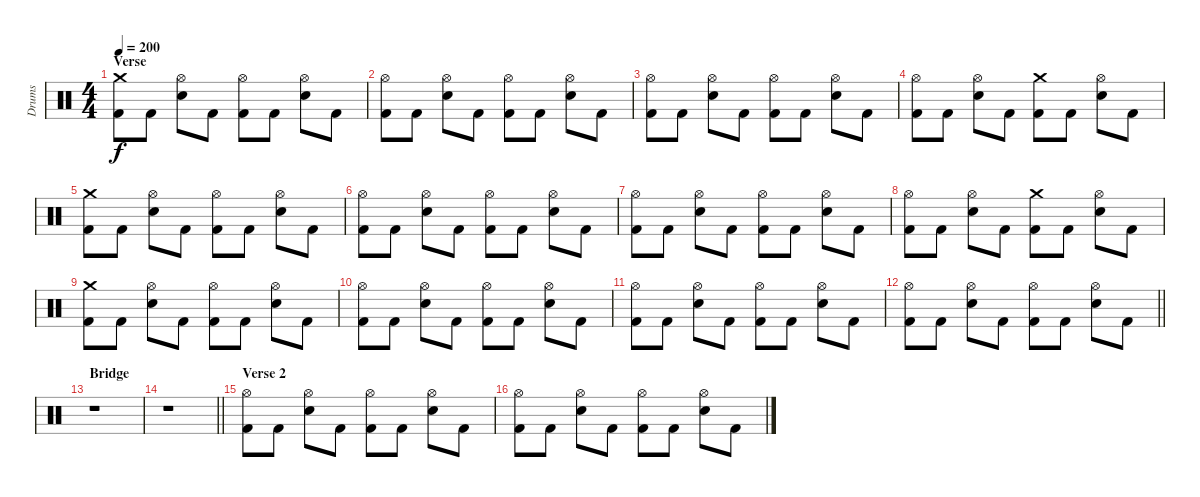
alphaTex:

\track ("Drums" "Drums") {instrument percussion}
\staff {score}
\articulation defaults
\ts (4 4)
\section ("" "Verse")
\tempo 200
\clef neutral
\ks c
("Kick (hit) 2" "Crash medium (hit)").8{dy f} "Kick (hit) 2".8 ("Snare (hit) 2" "Hi-Hat (open)").8 "Kick (hit) 2".8 ("Kick (hit) 2" "Hi-Hat (open)").8 "Kick (hit) 2".8 ("Snare (hit) 2" "Hi-Hat (open)").8 "Kick (hit) 2".8 |
("Kick (hit) 2" "Hi-Hat (open)").8 "Kick (hit) 2".8 ("Snare (hit) 2" "Hi-Hat (open)").8 "Kick (hit) 2".8 ("Kick (hit) 2" "Hi-Hat (open)").8 "Kick (hit) 2".8 ("Snare (hit) 2" "Hi-Hat (open)").8 "Kick (hit) 2".8 |
("Kick (hit) 2" "Hi-Hat (open)").8 "Kick (hit) 2".8 ("Snare (hit) 2" "Hi-Hat (open)").8 "Kick (hit) 2".8 ("Kick (hit) 2" "Hi-Hat (open)").8 "Kick (hit) 2".8 ("Snare (hit) 2" "Hi-Hat (open)").8 "Kick (hit) 2".8 |
("Kick (hit) 2" "Hi-Hat (open)").8 "Kick (hit) 2".8 ("Snare (hit) 2" "Hi-Hat (open)").8 "Kick (hit) 2".8 ("Kick (hit) 2" "Crash medium (hit)").8 "Kick (hit) 2".8 ("Snare (hit) 2" "Hi-Hat (open)").8 "Kick (hit) 2".8 |
("Kick (hit) 2" "Crash medium (hit)").8 "Kick (hit) 2".8 ("Snare (hit) 2" "Hi-Hat (open)").8 "Kick (hit) 2".8 ("Kick (hit) 2" "Hi-Hat (open)").8 "Kick (hit) 2".8 ("Snare (hit) 2" "Hi-Hat (open)").8 "Kick (hit) 2".8 |
("Kick (hit) 2" "Hi-Hat (open)").8 "Kick (hit) 2".8 ("Snare (hit) 2" "Hi-Hat (open)").8 "Kick (hit) 2".8 ("Kick (hit) 2" "Hi-Hat (open)").8 "Kick (hit) 2".8 ("Snare (hit) 2" "Hi-Hat (open)").8 "Kick (hit) 2".8 |
("Kick (hit) 2" "Hi-Hat (open)").8 "Kick (hit) 2".8 ("Snare (hit) 2" "Hi-Hat (open)").8 "Kick (hit) 2".8 ("Kick (hit) 2" "Hi-Hat (open)").8 "Kick (hit) 2".8 ("Snare (hit) 2" "Hi-Hat (open)").8 "Kick (hit) 2".8 |
("Kick (hit) 2" "Hi-Hat (open)").8 "Kick (hit) 2".8 ("Snare (hit) 2" "Hi-Hat (open)").8 "Kick (hit) 2".8 ("Kick (hit) 2" "Crash medium (hit)").8 "Kick (hit) 2".8 ("Snare (hit) 2" "Hi-Hat (open)").8 "Kick (hit) 2".8 |
("Kick (hit) 2" "Crash medium (hit)").8 "Kick (hit) 2".8 ("Snare (hit) 2" "Hi-Hat (open)").8 "Kick (hit) 2".8 ("Kick (hit) 2" "Hi-Hat (open)").8 "Kick (hit) 2".8 ("Snare (hit) 2" "Hi-Hat (open)").8 "Kick (hit) 2".8 |
("Kick (hit) 2" "Hi-Hat (open)").8 "Kick (hit) 2".8 ("Snare (hit) 2" "Hi-Hat (open)").8 "Kick (hit) 2".8 ("Kick (hit) 2" "Hi-Hat (open)").8 "Kick (hit) 2".8 ("Snare (hit) 2" "Hi-Hat (open)").8 "Kick (hit) 2".8 |
("Kick (hit) 2" "Hi-Hat (open)").8 "Kick (hit) 2".8 ("Snare (hit) 2" "Hi-Hat (open)").8 "Kick (hit) 2".8 ("Kick (hit) 2" "Hi-Hat (open)").8 "Kick (hit) 2".8 ("Snare (hit) 2" "Hi-Hat (open)").8 "Kick (hit) 2".8 |
\barLineRight lightlight
("Kick (hit) 2" "Hi-Hat (open)").8 "Kick (hit) 2".8 ("Snare (hit) 2" "Hi-Hat (open)").8 "Kick (hit) 2".8 ("Kick (hit) 2" "Hi-Hat (open)").8 "Kick (hit) 2".8 ("Snare (hit) 2" "Hi-Hat (open)").8 "Kick (hit) 2".8 |
\section ("" "Bridge")
r.1 |
\barLineRight lightlight
r.1 |
\section ("" "Verse 2")
("Kick (hit) 2" "Hi-Hat (open)").8 "Kick (hit) 2".8 ("Snare (hit) 2" "Hi-Hat (open)").8 "Kick (hit) 2".8 ("Kick (hit) 2" "Hi-Hat (open)").8 "Kick (hit) 2".8 ("Snare (hit) 2" "Hi-Hat (open)").8 "Kick (hit) 2".8 |
("Kick (hit) 2" "Hi-Hat (open)").8 "Kick (hit) 2".8 ("Snare (hit) 2" "Hi-Hat (open)").8 "Kick (hit) 2".8 ("Kick (hit) 2" "Hi-Hat (open)").8 "Kick (hit) 2".8 ("Snare (hit) 2" "Hi-Hat (open)").8 "Kick (hit) 2".8
